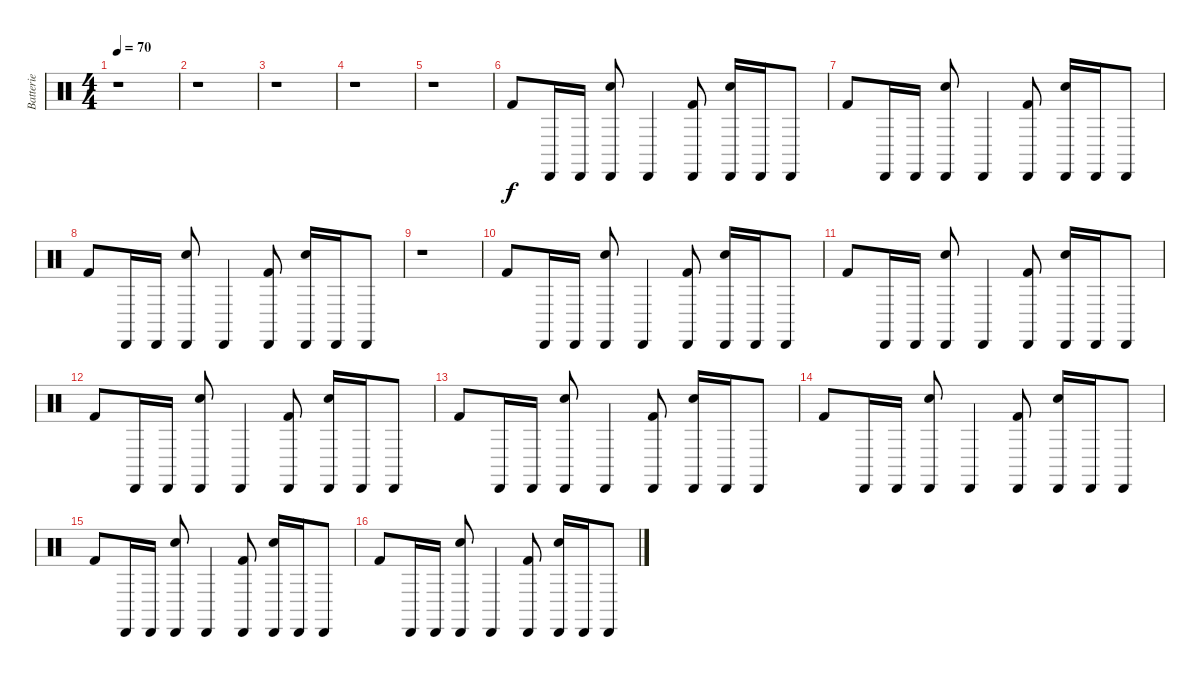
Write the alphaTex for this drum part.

\track ("Batterie" "Batterie") {instrument percussion}
\staff {score}
\articulation defaults
\ts (4 4)
\tempo 70
\clef neutral
\ks c
r.1{dy f} |
r.1 |
r.1 |
r.1 |
r.1 |
"Kick (hit) 2".8 "Cabasa (hit)".16 "Cabasa (hit)".16 ("Cabasa (hit)" "Snare (hit) 2").8 "Cabasa (hit)".4 ("Cabasa (hit)" "Kick (hit) 2").8 ("Cabasa (hit)" "Snare (hit) 2").16 "Cabasa (hit)".16 "Cabasa (hit)".8 |
"Kick (hit) 2".8 "Cabasa (hit)".16 "Cabasa (hit)".16 ("Cabasa (hit)" "Snare (hit) 2").8 "Cabasa (hit)".4 ("Cabasa (hit)" "Kick (hit) 2").8 ("Cabasa (hit)" "Snare (hit) 2").16 "Cabasa (hit)".16 "Cabasa (hit)".8 |
"Kick (hit) 2".8 "Cabasa (hit)".16 "Cabasa (hit)".16 ("Cabasa (hit)" "Snare (hit) 2").8 "Cabasa (hit)".4 ("Cabasa (hit)" "Kick (hit) 2").8 ("Cabasa (hit)" "Snare (hit) 2").16 "Cabasa (hit)".16 "Cabasa (hit)".8 |
r.1 |
"Kick (hit) 2".8 "Cabasa (hit)".16 "Cabasa (hit)".16 ("Cabasa (hit)" "Snare (hit) 2").8 "Cabasa (hit)".4 ("Cabasa (hit)" "Kick (hit) 2").8 ("Cabasa (hit)" "Snare (hit) 2").16 "Cabasa (hit)".16 "Cabasa (hit)".8 |
"Kick (hit) 2".8 "Cabasa (hit)".16 "Cabasa (hit)".16 ("Cabasa (hit)" "Snare (hit) 2").8 "Cabasa (hit)".4 ("Cabasa (hit)" "Kick (hit) 2").8 ("Cabasa (hit)" "Snare (hit) 2").16 "Cabasa (hit)".16 "Cabasa (hit)".8 |
"Kick (hit) 2".8 "Cabasa (hit)".16 "Cabasa (hit)".16 ("Cabasa (hit)" "Snare (hit) 2").8 "Cabasa (hit)".4 ("Cabasa (hit)" "Kick (hit) 2").8 ("Cabasa (hit)" "Snare (hit) 2").16 "Cabasa (hit)".16 "Cabasa (hit)".8 |
"Kick (hit) 2".8 "Cabasa (hit)".16 "Cabasa (hit)".16 ("Cabasa (hit)" "Snare (hit) 2").8 "Cabasa (hit)".4 ("Cabasa (hit)" "Kick (hit) 2").8 ("Cabasa (hit)" "Snare (hit) 2").16 "Cabasa (hit)".16 "Cabasa (hit)".8 |
"Kick (hit) 2".8 "Cabasa (hit)".16 "Cabasa (hit)".16 ("Cabasa (hit)" "Snare (hit) 2").8 "Cabasa (hit)".4 ("Cabasa (hit)" "Kick (hit) 2").8 ("Cabasa (hit)" "Snare (hit) 2").16 "Cabasa (hit)".16 "Cabasa (hit)".8 |
"Kick (hit) 2".8 "Cabasa (hit)".16 "Cabasa (hit)".16 ("Cabasa (hit)" "Snare (hit) 2").8 "Cabasa (hit)".4 ("Cabasa (hit)" "Kick (hit) 2").8 ("Cabasa (hit)" "Snare (hit) 2").16 "Cabasa (hit)".16 "Cabasa (hit)".8 |
"Kick (hit) 2".8 "Cabasa (hit)".16 "Cabasa (hit)".16 ("Cabasa (hit)" "Snare (hit) 2").8 "Cabasa (hit)".4 ("Cabasa (hit)" "Kick (hit) 2").8 ("Cabasa (hit)" "Snare (hit) 2").16 "Cabasa (hit)".16 "Cabasa (hit)".8
